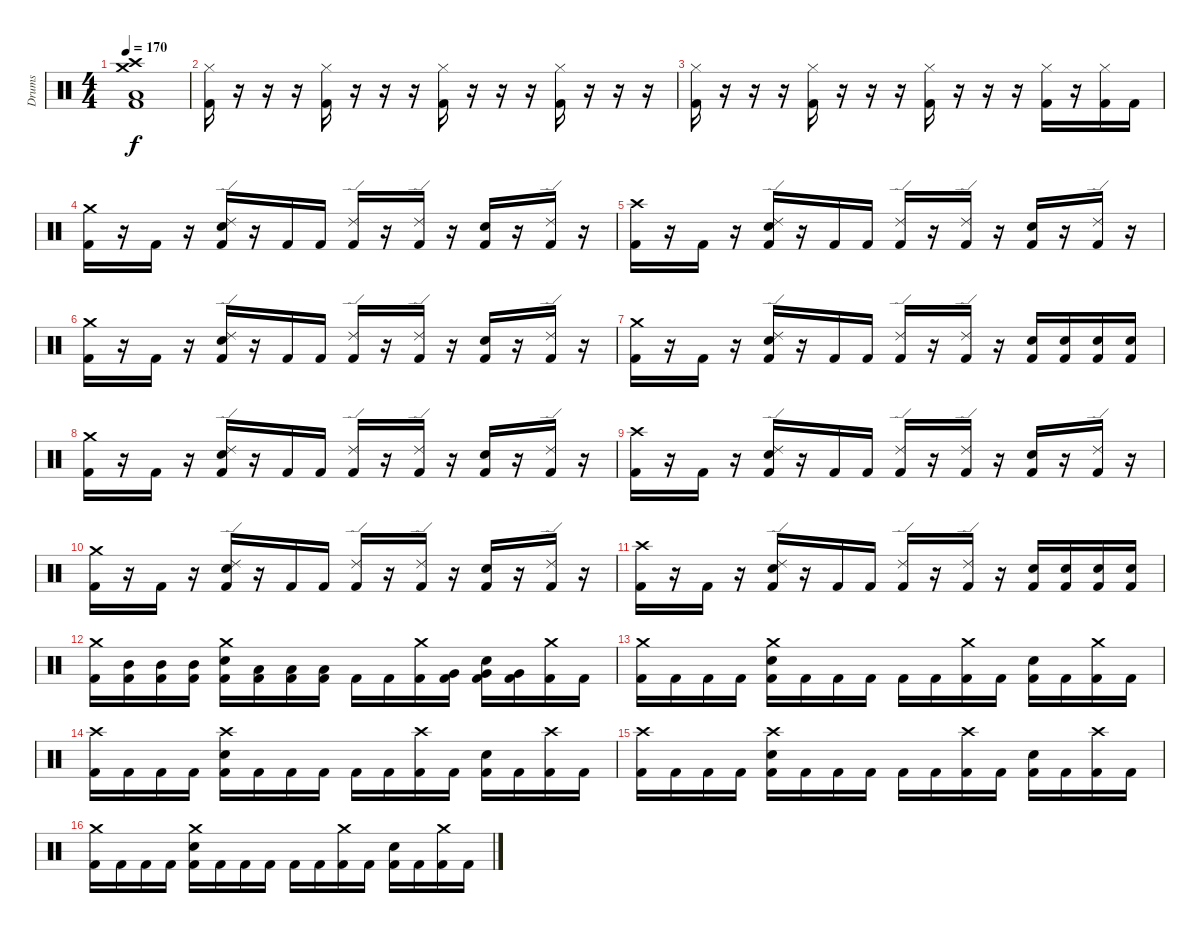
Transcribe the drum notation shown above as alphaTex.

\track ("Drums" "Drums") {instrument percussion}
\staff {score}
\articulation defaults
\ts (4 4)
\tempo 170
\clef neutral
\ks c
("Crash high (hit)" "Low Floor Tom (hit)" "Crash medium (hit)" "Kick (hit) 2").1{dy f} |
("Hi-Hat (closed)" "Kick (hit) 2").16 r.16 r.16 r.16 ("Hi-Hat (closed)" "Kick (hit) 2").16 r.16 r.16 r.16 ("Hi-Hat (closed)" "Kick (hit) 2").16 r.16 r.16 r.16 ("Hi-Hat (closed)" "Kick (hit) 2").16 r.16 r.16 r.16 |
("Hi-Hat (closed)" "Kick (hit) 2").16 r.16 r.16 r.16 ("Hi-Hat (closed)" "Kick (hit) 2").16 r.16 r.16 r.16 ("Hi-Hat (closed)" "Kick (hit) 2").16 r.16 r.16 r.16 ("Hi-Hat (closed)" "Kick (hit) 2").16 r.16 ("Hi-Hat (closed)" "Kick (hit) 2").16 "Kick (hit) 2".16 |
("Crash medium (hit)" "Kick (hit) 2").16 r.16 "Kick (hit) 2".16 r.16 ("Ride (edge) 2" "Electric Snare (hit)" "Kick (hit) 2").16 r.16 "Kick (hit) 2".16 "Kick (hit) 2".16 ("Ride (edge) 2" "Kick (hit) 2").16 r.16 ("Ride (edge) 2" "Kick (hit) 2").16 r.16 ("Electric Snare (hit)" "Kick (hit) 2").16 r.16 ("Ride (edge) 2" "Kick (hit) 2").16 r.16 |
("Crash high (hit)" "Kick (hit) 2").16 r.16 "Kick (hit) 2".16 r.16 ("Ride (edge) 2" "Electric Snare (hit)" "Kick (hit) 2").16 r.16 "Kick (hit) 2".16 "Kick (hit) 2".16 ("Ride (edge) 2" "Kick (hit) 2").16 r.16 ("Ride (edge) 2" "Kick (hit) 2").16 r.16 ("Electric Snare (hit)" "Kick (hit) 2").16 r.16 ("Ride (edge) 2" "Kick (hit) 2").16 r.16 |
("Crash medium (hit)" "Kick (hit) 2").16 r.16 "Kick (hit) 2".16 r.16 ("Ride (edge) 2" "Electric Snare (hit)" "Kick (hit) 2").16 r.16 "Kick (hit) 2".16 "Kick (hit) 2".16 ("Ride (edge) 2" "Kick (hit) 2").16 r.16 ("Ride (edge) 2" "Kick (hit) 2").16 r.16 ("Electric Snare (hit)" "Kick (hit) 2").16 r.16 ("Ride (edge) 2" "Kick (hit) 2").16 r.16 |
("Crash medium (hit)" "Kick (hit) 2").16 r.16 "Kick (hit) 2".16 r.16 ("Ride (edge) 2" "Electric Snare (hit)" "Kick (hit) 2").16 r.16 "Kick (hit) 2".16 "Kick (hit) 2".16 ("Ride (edge) 2" "Kick (hit) 2").16 r.16 ("Ride (edge) 2" "Kick (hit) 2").16 r.16 ("Electric Snare (hit)" "Kick (hit) 2").16 ("Electric Snare (hit)" "Kick (hit) 2").16 ("Electric Snare (hit)" "Kick (hit) 2").16 ("Electric Snare (hit)" "Kick (hit) 2").16 |
("Crash medium (hit)" "Kick (hit) 2").16 r.16 "Kick (hit) 2".16 r.16 ("Ride (edge) 2" "Electric Snare (hit)" "Kick (hit) 2").16 r.16 "Kick (hit) 2".16 "Kick (hit) 2".16 ("Ride (edge) 2" "Kick (hit) 2").16 r.16 ("Ride (edge) 2" "Kick (hit) 2").16 r.16 ("Electric Snare (hit)" "Kick (hit) 2").16 r.16 ("Ride (edge) 2" "Kick (hit) 2").16 r.16 |
("Crash high (hit)" "Kick (hit) 2").16 r.16 "Kick (hit) 2".16 r.16 ("Ride (edge) 2" "Electric Snare (hit)" "Kick (hit) 2").16 r.16 "Kick (hit) 2".16 "Kick (hit) 2".16 ("Ride (edge) 2" "Kick (hit) 2").16 r.16 ("Ride (edge) 2" "Kick (hit) 2").16 r.16 ("Electric Snare (hit)" "Kick (hit) 2").16 r.16 ("Ride (edge) 2" "Kick (hit) 2").16 r.16 |
("Crash medium (hit)" "Kick (hit) 2").16 r.16 "Kick (hit) 2".16 r.16 ("Ride (edge) 2" "Electric Snare (hit)" "Kick (hit) 2").16 r.16 "Kick (hit) 2".16 "Kick (hit) 2".16 ("Ride (edge) 2" "Kick (hit) 2").16 r.16 ("Ride (edge) 2" "Kick (hit) 2").16 r.16 ("Electric Snare (hit)" "Kick (hit) 2").16 r.16 ("Ride (edge) 2" "Kick (hit) 2").16 r.16 |
("Crash high (hit)" "Kick (hit) 2").16 r.16 "Kick (hit) 2".16 r.16 ("Ride (edge) 2" "Electric Snare (hit)" "Kick (hit) 2").16 r.16 "Kick (hit) 2".16 "Kick (hit) 2".16 ("Ride (edge) 2" "Kick (hit) 2").16 r.16 ("Ride (edge) 2" "Kick (hit) 2").16 r.16 ("Electric Snare (hit)" "Kick (hit) 2").16 ("Electric Snare (hit)" "Kick (hit) 2").16 ("Electric Snare (hit)" "Kick (hit) 2").16 ("Electric Snare (hit)" "Kick (hit) 2").16 |
("Crash medium (hit)" "Kick (hit) 2").16 ("Mid Tom (hit)" "Kick (hit) 2").16 ("Mid Tom (hit)" "Kick (hit) 2").16 ("Mid Tom (hit)" "Kick (hit) 2").16 ("Crash medium (hit)" "Electric Snare (hit)" "Kick (hit) 2").16 ("Low Tom (hit)" "Kick (hit) 2").16 ("Low Tom (hit)" "Kick (hit) 2").16 ("Low Tom (hit)" "Kick (hit) 2").16 "Kick (hit) 2".16 "Kick (hit) 2".16 ("Crash medium (hit)" "Kick (hit) 2").16 ("Very Low Tom (hit)" "Kick (hit) 2").16 ("Very Low Tom (hit)" "Electric Snare (hit)" "Kick (hit) 2").16 ("Very Low Tom (hit)" "Kick (hit) 2").16 ("Crash medium (hit)" "Kick (hit) 2").16 "Kick (hit) 2".16 |
("Crash medium (hit)" "Kick (hit) 2").16 "Kick (hit) 2".16 "Kick (hit) 2".16 "Kick (hit) 2".16 ("Crash medium (hit)" "Electric Snare (hit)" "Kick (hit) 2").16 "Kick (hit) 2".16 "Kick (hit) 2".16 "Kick (hit) 2".16 "Kick (hit) 2".16 "Kick (hit) 2".16 ("Crash medium (hit)" "Kick (hit) 2").16 "Kick (hit) 2".16 ("Electric Snare (hit)" "Kick (hit) 2").16 "Kick (hit) 2".16 ("Crash medium (hit)" "Kick (hit) 2").16 "Kick (hit) 2".16 |
("Crash high (hit)" "Kick (hit) 2").16 "Kick (hit) 2".16 "Kick (hit) 2".16 "Kick (hit) 2".16 ("Crash high (hit)" "Electric Snare (hit)" "Kick (hit) 2").16 "Kick (hit) 2".16 "Kick (hit) 2".16 "Kick (hit) 2".16 "Kick (hit) 2".16 "Kick (hit) 2".16 ("Crash high (hit)" "Kick (hit) 2").16 "Kick (hit) 2".16 ("Electric Snare (hit)" "Kick (hit) 2").16 "Kick (hit) 2".16 ("Crash high (hit)" "Kick (hit) 2").16 "Kick (hit) 2".16 |
("Crash high (hit)" "Kick (hit) 2").16 "Kick (hit) 2".16 "Kick (hit) 2".16 "Kick (hit) 2".16 ("Crash high (hit)" "Electric Snare (hit)" "Kick (hit) 2").16 "Kick (hit) 2".16 "Kick (hit) 2".16 "Kick (hit) 2".16 "Kick (hit) 2".16 "Kick (hit) 2".16 ("Crash high (hit)" "Kick (hit) 2").16 "Kick (hit) 2".16 ("Electric Snare (hit)" "Kick (hit) 2").16 "Kick (hit) 2".16 ("Crash high (hit)" "Kick (hit) 2").16 "Kick (hit) 2".16 |
("Crash medium (hit)" "Kick (hit) 2").16 "Kick (hit) 2".16 "Kick (hit) 2".16 "Kick (hit) 2".16 ("Crash medium (hit)" "Electric Snare (hit)" "Kick (hit) 2").16 "Kick (hit) 2".16 "Kick (hit) 2".16 "Kick (hit) 2".16 "Kick (hit) 2".16 "Kick (hit) 2".16 ("Crash medium (hit)" "Kick (hit) 2").16 "Kick (hit) 2".16 ("Electric Snare (hit)" "Kick (hit) 2").16 "Kick (hit) 2".16 ("Crash medium (hit)" "Kick (hit) 2").16 "Kick (hit) 2".16
